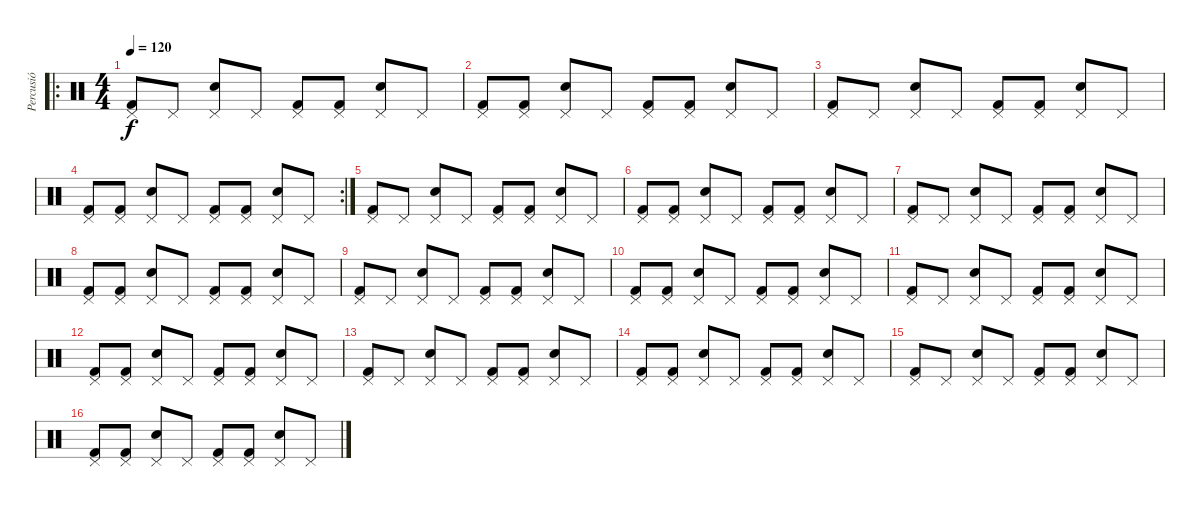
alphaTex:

\track ("Percusió" "Percusió") {instrument percussion}
\staff {score}
\articulation defaults
\ro
\ts (4 4)
\tempo 120
\clef neutral
\ks c
("Pedal Hi-Hat (hit)" "Kick (hit) 2").8{dy f} "Pedal Hi-Hat (hit)".8 ("Pedal Hi-Hat (hit)" "Snare (hit) 2").8 "Pedal Hi-Hat (hit)".8 ("Pedal Hi-Hat (hit)" "Kick (hit) 2").8 ("Pedal Hi-Hat (hit)" "Kick (hit) 2").8 ("Pedal Hi-Hat (hit)" "Snare (hit) 2").8 "Pedal Hi-Hat (hit)".8 |
("Pedal Hi-Hat (hit)" "Kick (hit) 2").8 ("Pedal Hi-Hat (hit)" "Kick (hit) 2").8 ("Pedal Hi-Hat (hit)" "Snare (hit) 2").8 "Pedal Hi-Hat (hit)".8 ("Pedal Hi-Hat (hit)" "Kick (hit) 2").8 ("Pedal Hi-Hat (hit)" "Kick (hit) 2").8 ("Pedal Hi-Hat (hit)" "Snare (hit) 2").8 "Pedal Hi-Hat (hit)".8 |
("Pedal Hi-Hat (hit)" "Kick (hit) 2").8 "Pedal Hi-Hat (hit)".8 ("Pedal Hi-Hat (hit)" "Snare (hit) 2").8 "Pedal Hi-Hat (hit)".8 ("Pedal Hi-Hat (hit)" "Kick (hit) 2").8 ("Pedal Hi-Hat (hit)" "Kick (hit) 2").8 ("Pedal Hi-Hat (hit)" "Snare (hit) 2").8 "Pedal Hi-Hat (hit)".8 |
\rc 2
("Pedal Hi-Hat (hit)" "Kick (hit) 2").8 ("Pedal Hi-Hat (hit)" "Kick (hit) 2").8 ("Pedal Hi-Hat (hit)" "Snare (hit) 2").8 "Pedal Hi-Hat (hit)".8 ("Pedal Hi-Hat (hit)" "Kick (hit) 2").8 ("Pedal Hi-Hat (hit)" "Kick (hit) 2").8 ("Pedal Hi-Hat (hit)" "Snare (hit) 2").8 "Pedal Hi-Hat (hit)".8 |
("Pedal Hi-Hat (hit)" "Kick (hit) 2").8 "Pedal Hi-Hat (hit)".8 ("Pedal Hi-Hat (hit)" "Snare (hit) 2").8 "Pedal Hi-Hat (hit)".8 ("Pedal Hi-Hat (hit)" "Kick (hit) 2").8 ("Pedal Hi-Hat (hit)" "Kick (hit) 2").8 ("Pedal Hi-Hat (hit)" "Snare (hit) 2").8 "Pedal Hi-Hat (hit)".8 |
("Pedal Hi-Hat (hit)" "Kick (hit) 2").8 ("Pedal Hi-Hat (hit)" "Kick (hit) 2").8 ("Pedal Hi-Hat (hit)" "Snare (hit) 2").8 "Pedal Hi-Hat (hit)".8 ("Pedal Hi-Hat (hit)" "Kick (hit) 2").8 ("Pedal Hi-Hat (hit)" "Kick (hit) 2").8 ("Pedal Hi-Hat (hit)" "Snare (hit) 2").8 "Pedal Hi-Hat (hit)".8 |
("Pedal Hi-Hat (hit)" "Kick (hit) 2").8 "Pedal Hi-Hat (hit)".8 ("Pedal Hi-Hat (hit)" "Snare (hit) 2").8 "Pedal Hi-Hat (hit)".8 ("Pedal Hi-Hat (hit)" "Kick (hit) 2").8 ("Pedal Hi-Hat (hit)" "Kick (hit) 2").8 ("Pedal Hi-Hat (hit)" "Snare (hit) 2").8 "Pedal Hi-Hat (hit)".8 |
("Pedal Hi-Hat (hit)" "Kick (hit) 2").8 ("Pedal Hi-Hat (hit)" "Kick (hit) 2").8 ("Pedal Hi-Hat (hit)" "Snare (hit) 2").8 "Pedal Hi-Hat (hit)".8 ("Pedal Hi-Hat (hit)" "Kick (hit) 2").8 ("Pedal Hi-Hat (hit)" "Kick (hit) 2").8 ("Pedal Hi-Hat (hit)" "Snare (hit) 2").8 "Pedal Hi-Hat (hit)".8 |
("Pedal Hi-Hat (hit)" "Kick (hit) 2").8 "Pedal Hi-Hat (hit)".8 ("Pedal Hi-Hat (hit)" "Snare (hit) 2").8 "Pedal Hi-Hat (hit)".8 ("Pedal Hi-Hat (hit)" "Kick (hit) 2").8 ("Pedal Hi-Hat (hit)" "Kick (hit) 2").8 ("Pedal Hi-Hat (hit)" "Snare (hit) 2").8 "Pedal Hi-Hat (hit)".8 |
("Pedal Hi-Hat (hit)" "Kick (hit) 2").8 ("Pedal Hi-Hat (hit)" "Kick (hit) 2").8 ("Pedal Hi-Hat (hit)" "Snare (hit) 2").8 "Pedal Hi-Hat (hit)".8 ("Pedal Hi-Hat (hit)" "Kick (hit) 2").8 ("Pedal Hi-Hat (hit)" "Kick (hit) 2").8 ("Pedal Hi-Hat (hit)" "Snare (hit) 2").8 "Pedal Hi-Hat (hit)".8 |
("Pedal Hi-Hat (hit)" "Kick (hit) 2").8 "Pedal Hi-Hat (hit)".8 ("Pedal Hi-Hat (hit)" "Snare (hit) 2").8 "Pedal Hi-Hat (hit)".8 ("Pedal Hi-Hat (hit)" "Kick (hit) 2").8 ("Pedal Hi-Hat (hit)" "Kick (hit) 2").8 ("Pedal Hi-Hat (hit)" "Snare (hit) 2").8 "Pedal Hi-Hat (hit)".8 |
("Pedal Hi-Hat (hit)" "Kick (hit) 2").8 ("Pedal Hi-Hat (hit)" "Kick (hit) 2").8 ("Pedal Hi-Hat (hit)" "Snare (hit) 2").8 "Pedal Hi-Hat (hit)".8 ("Pedal Hi-Hat (hit)" "Kick (hit) 2").8 ("Pedal Hi-Hat (hit)" "Kick (hit) 2").8 ("Pedal Hi-Hat (hit)" "Snare (hit) 2").8 "Pedal Hi-Hat (hit)".8 |
("Pedal Hi-Hat (hit)" "Kick (hit) 2").8 "Pedal Hi-Hat (hit)".8 ("Pedal Hi-Hat (hit)" "Snare (hit) 2").8 "Pedal Hi-Hat (hit)".8 ("Pedal Hi-Hat (hit)" "Kick (hit) 2").8 ("Pedal Hi-Hat (hit)" "Kick (hit) 2").8 ("Pedal Hi-Hat (hit)" "Snare (hit) 2").8 "Pedal Hi-Hat (hit)".8 |
("Pedal Hi-Hat (hit)" "Kick (hit) 2").8 ("Pedal Hi-Hat (hit)" "Kick (hit) 2").8 ("Pedal Hi-Hat (hit)" "Snare (hit) 2").8 "Pedal Hi-Hat (hit)".8 ("Pedal Hi-Hat (hit)" "Kick (hit) 2").8 ("Pedal Hi-Hat (hit)" "Kick (hit) 2").8 ("Pedal Hi-Hat (hit)" "Snare (hit) 2").8 "Pedal Hi-Hat (hit)".8 |
("Pedal Hi-Hat (hit)" "Kick (hit) 2").8 "Pedal Hi-Hat (hit)".8 ("Pedal Hi-Hat (hit)" "Snare (hit) 2").8 "Pedal Hi-Hat (hit)".8 ("Pedal Hi-Hat (hit)" "Kick (hit) 2").8 ("Pedal Hi-Hat (hit)" "Kick (hit) 2").8 ("Pedal Hi-Hat (hit)" "Snare (hit) 2").8 "Pedal Hi-Hat (hit)".8 |
("Pedal Hi-Hat (hit)" "Kick (hit) 2").8 ("Pedal Hi-Hat (hit)" "Kick (hit) 2").8 ("Pedal Hi-Hat (hit)" "Snare (hit) 2").8 "Pedal Hi-Hat (hit)".8 ("Pedal Hi-Hat (hit)" "Kick (hit) 2").8 ("Pedal Hi-Hat (hit)" "Kick (hit) 2").8 ("Pedal Hi-Hat (hit)" "Snare (hit) 2").8 "Pedal Hi-Hat (hit)".8
